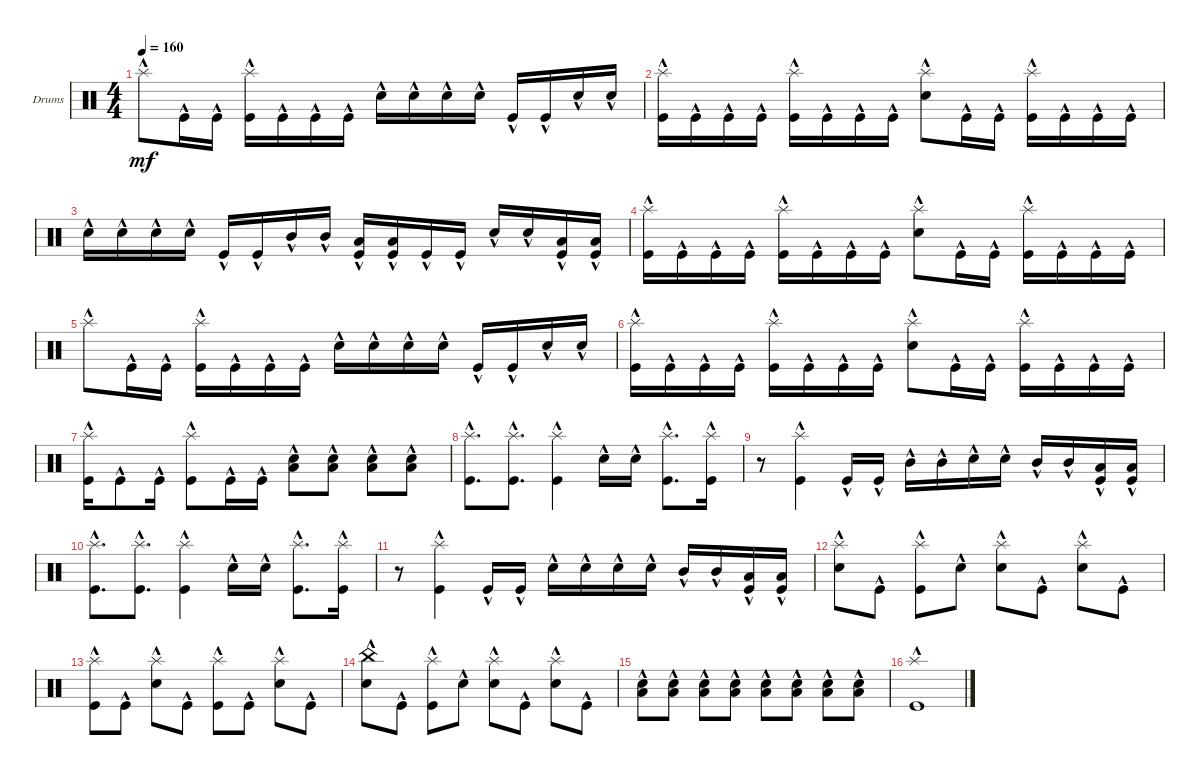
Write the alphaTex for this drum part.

\defaultSystemsLayout 4
\bracketExtendMode groupsimilarinstruments
\firstSystemTrackNameOrientation horizontal
\otherSystemsTrackNameOrientation horizontal
\track ("Drums" "Drums") {instrument percussion}
\staff {score}
\articulation defaults
\ts (4 4)
\tempo 160
\clef neutral
\ks c "Splash (hit)"{hac}.8{dy mf} "Kick (hit)"{hac}.16 "Kick (hit)"{hac}.16
("Kick (hit)"{hac} "Splash (hit)"{hac}).16 "Kick (hit)"{hac}.16 "Kick (hit)"{hac}.16 "Kick (hit)"{hac}.16 "Snare (hit) 2"{hac}.16 "Snare (hit) 2"{hac}.16 "Snare (hit) 2"{hac}.16 "Snare (hit) 2"{hac}.16 "Kick (hit)"{hac}.16 "Kick (hit)"{hac}.16 "Snare (hit) 2"{hac}.16 "Snare (hit) 2"{hac}.16 |
("Kick (hit)"{hac} "Splash (hit)"{hac}).16 "Kick (hit)"{hac}.16 "Kick (hit)"{hac}.16 "Kick (hit)"{hac}.16 ("Kick (hit)"{hac} "Splash (hit)"{hac}).16 "Kick (hit)"{hac}.16 "Kick (hit)"{hac}.16 "Kick (hit)"{hac}.16 ("Snare (hit) 2"{hac} "Splash (hit)"{hac}).8 "Kick (hit)"{hac}.16 "Kick (hit)"{hac}.16 ("Kick (hit)"{hac} "Splash (hit)"{hac}).16 "Kick (hit)"{hac}.16 "Kick (hit)"{hac}.16 "Kick (hit)"{hac}.16 |
"Snare (hit) 2"{hac}.16 "Snare (hit) 2"{hac}.16 "Snare (hit) 2"{hac}.16 "Snare (hit) 2"{hac}.16 "Kick (hit)"{hac}.16 "Kick (hit)"{hac}.16 "Mid Tom (hit)"{hac}.16 "Mid Tom (hit)"{hac}.16 ("Low Tom (hit)"{hac} "Kick (hit)").16 ("Low Tom (hit)"{hac} "Kick (hit)").16 "Kick (hit)"{hac}.16 "Kick (hit)"{hac}.16 "Snare (hit) 2"{hac}.16 "Snare (hit) 2"{hac}.16 ("Low Tom (hit)"{hac} "Kick (hit)").16 ("Low Tom (hit)"{hac} "Kick (hit)").16 |
("Kick (hit)"{hac} "Splash (hit)"{hac}).16 "Kick (hit)"{hac}.16 "Kick (hit)"{hac}.16 "Kick (hit)"{hac}.16 ("Kick (hit)"{hac} "Splash (hit)"{hac}).16 "Kick (hit)"{hac}.16 "Kick (hit)"{hac}.16 "Kick (hit)"{hac}.16 ("Snare (hit) 2"{hac} "Splash (hit)"{hac}).8 "Kick (hit)"{hac}.16 "Kick (hit)"{hac}.16 ("Kick (hit)"{hac} "Splash (hit)"{hac}).16 "Kick (hit)"{hac}.16 "Kick (hit)"{hac}.16 "Kick (hit)"{hac}.16 |
"Splash (hit)"{hac}.8 "Kick (hit)"{hac}.16 "Kick (hit)"{hac}.16 ("Kick (hit)"{hac} "Splash (hit)"{hac}).16 "Kick (hit)"{hac}.16 "Kick (hit)"{hac}.16 "Kick (hit)"{hac}.16 "Snare (hit) 2"{hac}.16 "Snare (hit) 2"{hac}.16 "Snare (hit) 2"{hac}.16 "Snare (hit) 2"{hac}.16 "Kick (hit)"{hac}.16 "Kick (hit)"{hac}.16 "Snare (hit) 2"{hac}.16 "Snare (hit) 2"{hac}.16 |
("Kick (hit)"{hac} "Splash (hit)"{hac}).16 "Kick (hit)"{hac}.16 "Kick (hit)"{hac}.16 "Kick (hit)"{hac}.16 ("Kick (hit)"{hac} "Splash (hit)"{hac}).16 "Kick (hit)"{hac}.16 "Kick (hit)"{hac}.16 "Kick (hit)"{hac}.16 ("Snare (hit) 2"{hac} "Splash (hit)"{hac}).8 "Kick (hit)"{hac}.16 "Kick (hit)"{hac}.16 ("Kick (hit)"{hac} "Splash (hit)"{hac}).16 "Kick (hit)"{hac}.16 "Kick (hit)"{hac}.16 "Kick (hit)"{hac}.16 |
("Kick (hit)"{hac} "Splash (hit)"{hac}).16 "Kick (hit)"{hac}.8 "Kick (hit)"{hac}.16 ("Kick (hit)"{hac} "Splash (hit)"{hac}).8 "Kick (hit)"{hac}.16 "Kick (hit)"{hac}.16 ("Snare (hit) 2"{hac} "Low Tom (hit)"{hac}).8 ("Snare (hit) 2"{hac} "Low Tom (hit)"{hac}).8 ("Snare (hit) 2"{hac} "Low Tom (hit)"{hac}).8 ("Snare (hit) 2"{hac} "Low Tom (hit)"{hac}).8 |
("Kick (hit)"{hac} "Splash (hit)"{hac}).8{d} ("Kick (hit)"{hac} "Splash (hit)"{hac}).8{d} ("Kick (hit)"{hac} "Splash (hit)"{hac}).4 "Snare (hit) 2"{hac}.16 "Snare (hit) 2"{hac}.16 ("Kick (hit)"{hac} "Splash (hit)"{hac}).8{d} ("Kick (hit)"{hac} "Splash (hit)"{hac}).16 |
r.8 ("Kick (hit)"{hac} "Splash (hit)"{hac}).4 "Kick (hit)"{hac}.16 "Kick (hit)"{hac}.16 "Mid Tom (hit)"{hac}.16 "Mid Tom (hit)"{hac}.16 "Snare (hit) 2"{hac}.16 "Snare (hit) 2"{hac}.16 "Mid Tom (hit)"{hac}.16 "Mid Tom (hit)"{hac}.16 ("Low Tom (hit)"{hac} "Kick (hit)").16 ("Low Tom (hit)"{hac} "Kick (hit)").16 |
("Kick (hit)"{hac} "Splash (hit)"{hac}).8{d} ("Kick (hit)"{hac} "Splash (hit)"{hac}).8{d} ("Kick (hit)"{hac} "Splash (hit)"{hac}).4 "Snare (hit) 2"{hac}.16 "Snare (hit) 2"{hac}.16 ("Kick (hit)"{hac} "Splash (hit)"{hac}).8{d} ("Kick (hit)"{hac} "Splash (hit)"{hac}).16 |
r.8 ("Kick (hit)"{hac} "Splash (hit)"{hac}).4 "Kick (hit)"{hac}.16 "Kick (hit)"{hac}.16 "Snare (hit) 2"{hac}.16 "Snare (hit) 2"{hac}.16 "Snare (hit) 2"{hac}.16 "Snare (hit) 2"{hac}.16 "Mid Tom (hit)"{hac}.16 "Mid Tom (hit)"{hac}.16 ("Low Tom (hit)"{hac} "Kick (hit)").16 ("Low Tom (hit)"{hac} "Kick (hit)").16 |
("Snare (hit) 2"{hac} "Splash (hit)"{hac}).8 "Kick (hit)"{hac}.8 ("Kick (hit)"{hac} "Splash (hit)"{hac}).8 "Snare (hit) 2"{hac}.8 ("Snare (hit) 2"{hac} "Splash (hit)"{hac}).8 "Kick (hit)"{hac}.8 ("Snare (hit) 2"{hac} "Splash (hit)"{hac}).8 "Kick (hit)"{hac}.8 |
("Kick (hit)"{hac} "Splash (hit)"{hac}).8 "Kick (hit)"{hac}.8 ("Snare (hit) 2"{hac} "Splash (hit)"{hac}).8 "Kick (hit)"{hac}.8 ("Kick (hit)"{hac} "Splash (hit)"{hac}).8 "Kick (hit)"{hac}.8 ("Snare (hit) 2"{hac} "Splash (hit)"{hac}).8 "Kick (hit)"{hac}.8 |
("Snare (hit) 2"{hac} "China (hit)"{hac}).8 "Kick (hit)"{hac}.8 ("Kick (hit)"{hac} "Splash (hit)"{hac}).8 "Snare (hit) 2"{hac}.8 ("Snare (hit) 2"{hac} "Splash (hit)"{hac}).8 "Kick (hit)"{hac}.8 ("Snare (hit) 2"{hac} "Splash (hit)"{hac}).8 "Kick (hit)"{hac}.8 |
("Snare (hit) 2"{hac} "Low Tom (hit)"{hac}).8 ("Snare (hit) 2"{hac} "Low Tom (hit)"{hac}).8 ("Snare (hit) 2"{hac} "Low Tom (hit)"{hac}).8 ("Snare (hit) 2"{hac} "Low Tom (hit)"{hac}).8 ("Snare (hit) 2"{hac} "Low Tom (hit)"{hac}).8 ("Snare (hit) 2"{hac} "Low Tom (hit)"{hac}).8 ("Snare (hit) 2"{hac} "Low Tom (hit)"{hac}).8 ("Snare (hit) 2"{hac} "Low Tom (hit)"{hac}).8 |
("Kick (hit)"{hac} "Splash (hit)"{hac}).1
